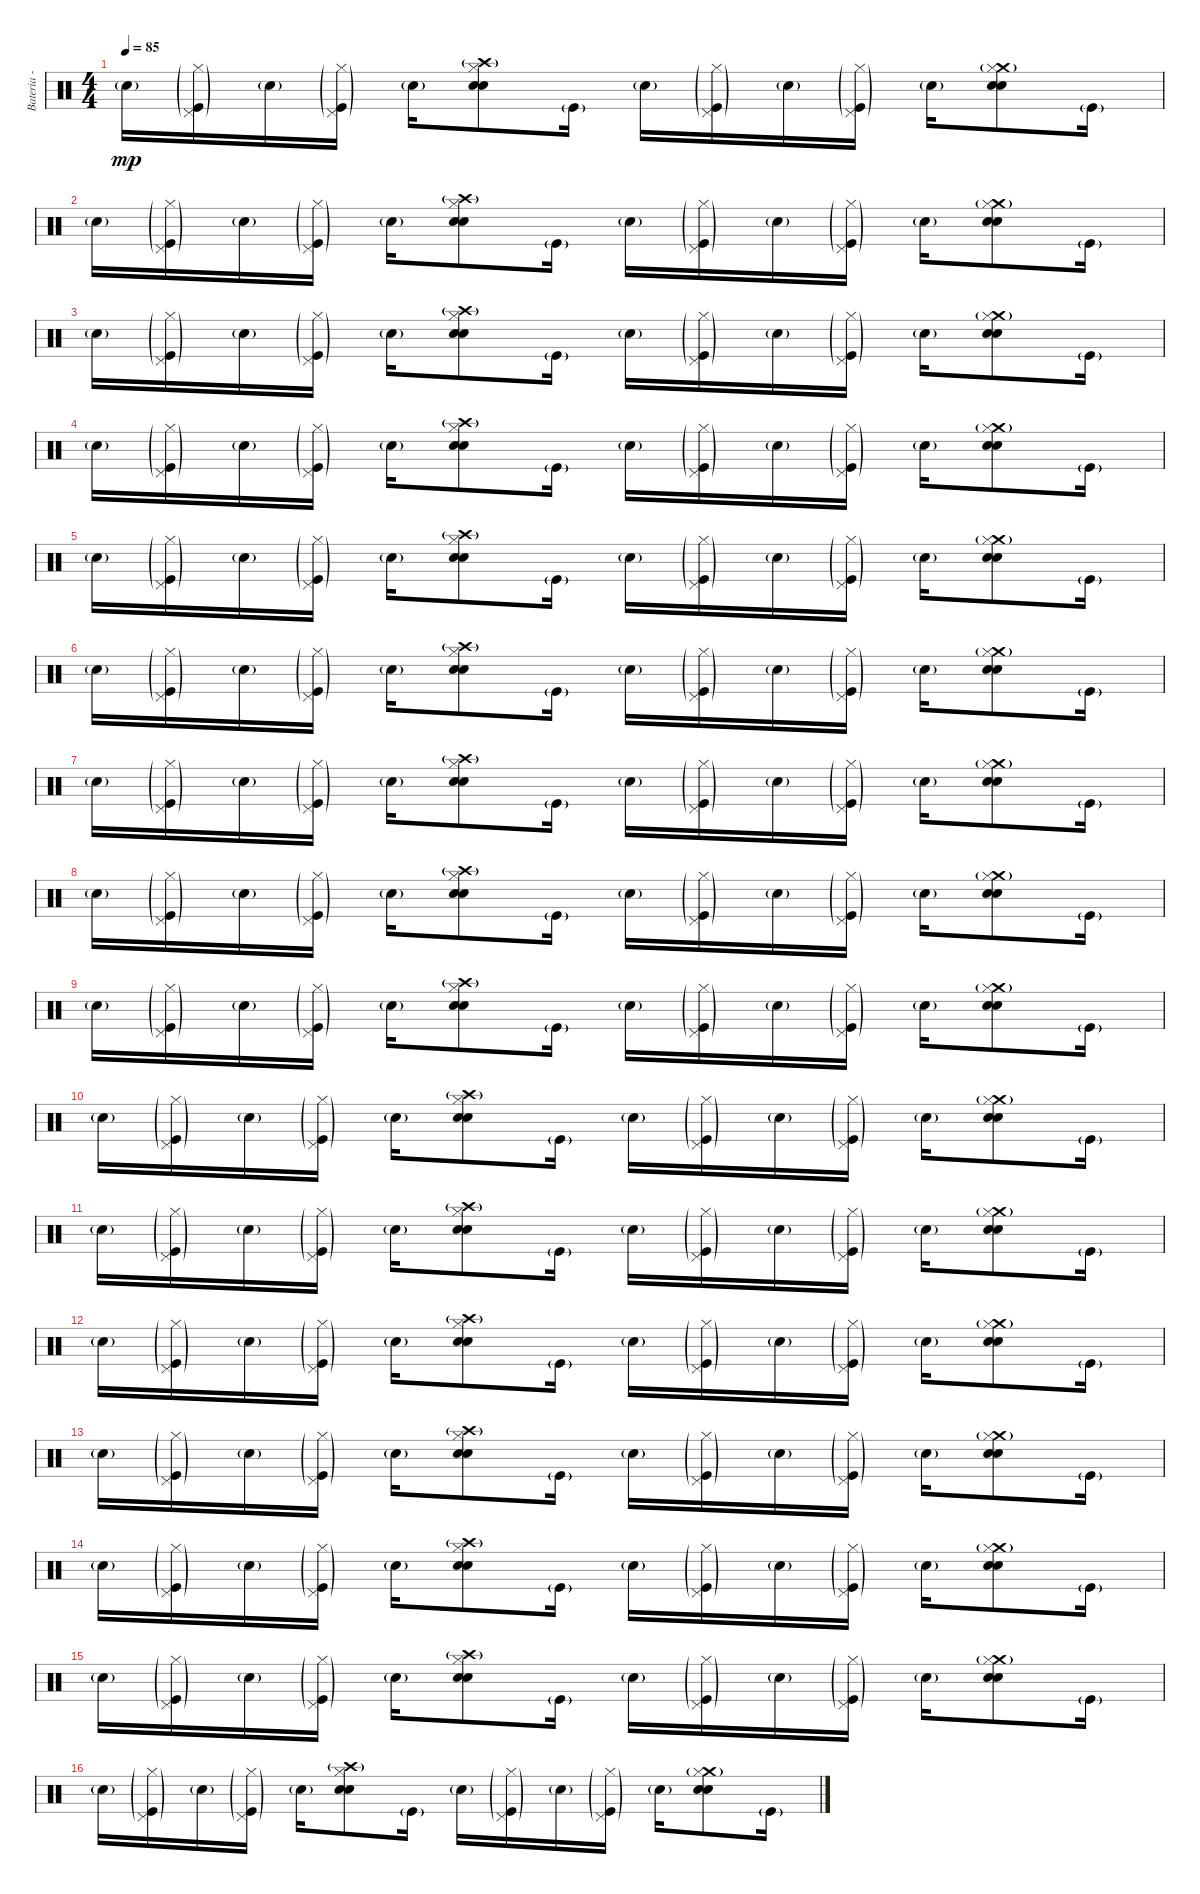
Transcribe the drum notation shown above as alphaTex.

\track ("Bateria - GONÇALO" "Bateria - ") {instrument percussion}
\staff {score}
\articulation defaults
\ts (4 4)
\tempo 85
\clef neutral
\ks c "Electric Snare (hit)"{g}.16{dy mp}
("Hi-Hat (closed)"{g} "Pedal Hi-Hat (hit)"{g} "Kick (hit)"{g}).16 "Snare (hit) 2"{g}.16 ("Hi-Hat (closed)"{g} "Pedal Hi-Hat (hit)"{g} "Kick (hit)"{g}).16 "Electric Snare (hit)"{g}.16 ("Crash high (hit)"{g} "Snare (hit) 2" "Electric Snare (hit)" "Hi-Hat (closed)").8 "Kick (hit)"{g}.16 "Electric Snare (hit)"{g}.16 ("Hi-Hat (closed)"{g} "Pedal Hi-Hat (hit)"{g} "Kick (hit)"{g}).16 "Snare (hit) 2"{g}.16 ("Hi-Hat (closed)"{g} "Pedal Hi-Hat (hit)"{g} "Kick (hit)"{g}).16 "Electric Snare (hit)"{g}.16 ("Crash medium (hit)"{g} "Snare (hit) 2" "Electric Snare (hit)" "Hi-Hat (closed)").8 "Kick (hit)"{g}.16 |
"Electric Snare (hit)"{g}.16 ("Hi-Hat (closed)"{g} "Pedal Hi-Hat (hit)"{g} "Kick (hit)"{g}).16 "Snare (hit) 2"{g}.16 ("Hi-Hat (closed)"{g} "Pedal Hi-Hat (hit)"{g} "Kick (hit)"{g}).16 "Electric Snare (hit)"{g}.16 ("Crash high (hit)"{g} "Snare (hit) 2" "Electric Snare (hit)" "Hi-Hat (closed)").8 "Kick (hit)"{g}.16 "Electric Snare (hit)"{g}.16 ("Hi-Hat (closed)"{g} "Pedal Hi-Hat (hit)"{g} "Kick (hit)"{g}).16 "Snare (hit) 2"{g}.16 ("Hi-Hat (closed)"{g} "Pedal Hi-Hat (hit)"{g} "Kick (hit)"{g}).16 "Electric Snare (hit)"{g}.16 ("Crash medium (hit)"{g} "Snare (hit) 2" "Electric Snare (hit)" "Hi-Hat (closed)").8 "Kick (hit)"{g}.16 |
"Electric Snare (hit)"{g}.16 ("Hi-Hat (closed)"{g} "Pedal Hi-Hat (hit)"{g} "Kick (hit)"{g}).16 "Snare (hit) 2"{g}.16 ("Hi-Hat (closed)"{g} "Pedal Hi-Hat (hit)"{g} "Kick (hit)"{g}).16 "Electric Snare (hit)"{g}.16 ("Crash high (hit)"{g} "Snare (hit) 2" "Electric Snare (hit)" "Hi-Hat (closed)").8 "Kick (hit)"{g}.16 "Electric Snare (hit)"{g}.16 ("Hi-Hat (closed)"{g} "Pedal Hi-Hat (hit)"{g} "Kick (hit)"{g}).16 "Snare (hit) 2"{g}.16 ("Hi-Hat (closed)"{g} "Pedal Hi-Hat (hit)"{g} "Kick (hit)"{g}).16 "Electric Snare (hit)"{g}.16 ("Crash medium (hit)"{g} "Snare (hit) 2" "Electric Snare (hit)" "Hi-Hat (closed)").8 "Kick (hit)"{g}.16 |
"Electric Snare (hit)"{g}.16 ("Hi-Hat (closed)"{g} "Pedal Hi-Hat (hit)"{g} "Kick (hit)"{g}).16 "Snare (hit) 2"{g}.16 ("Hi-Hat (closed)"{g} "Pedal Hi-Hat (hit)"{g} "Kick (hit)"{g}).16 "Electric Snare (hit)"{g}.16 ("Crash high (hit)"{g} "Snare (hit) 2" "Electric Snare (hit)" "Hi-Hat (closed)").8 "Kick (hit)"{g}.16 "Electric Snare (hit)"{g}.16 ("Hi-Hat (closed)"{g} "Pedal Hi-Hat (hit)"{g} "Kick (hit)"{g}).16 "Snare (hit) 2"{g}.16 ("Hi-Hat (closed)"{g} "Pedal Hi-Hat (hit)"{g} "Kick (hit)"{g}).16 "Electric Snare (hit)"{g}.16 ("Crash medium (hit)"{g} "Snare (hit) 2" "Electric Snare (hit)" "Hi-Hat (closed)").8 "Kick (hit)"{g}.16 |
"Electric Snare (hit)"{g}.16 ("Hi-Hat (closed)"{g} "Pedal Hi-Hat (hit)"{g} "Kick (hit)"{g}).16 "Snare (hit) 2"{g}.16 ("Hi-Hat (closed)"{g} "Pedal Hi-Hat (hit)"{g} "Kick (hit)"{g}).16 "Electric Snare (hit)"{g}.16 ("Crash high (hit)"{g} "Snare (hit) 2" "Electric Snare (hit)" "Hi-Hat (closed)").8 "Kick (hit)"{g}.16 "Electric Snare (hit)"{g}.16 ("Hi-Hat (closed)"{g} "Pedal Hi-Hat (hit)"{g} "Kick (hit)"{g}).16 "Snare (hit) 2"{g}.16 ("Hi-Hat (closed)"{g} "Pedal Hi-Hat (hit)"{g} "Kick (hit)"{g}).16 "Electric Snare (hit)"{g}.16 ("Crash medium (hit)"{g} "Snare (hit) 2" "Electric Snare (hit)" "Hi-Hat (closed)").8 "Kick (hit)"{g}.16 |
"Electric Snare (hit)"{g}.16 ("Hi-Hat (closed)"{g} "Pedal Hi-Hat (hit)"{g} "Kick (hit)"{g}).16 "Snare (hit) 2"{g}.16 ("Hi-Hat (closed)"{g} "Pedal Hi-Hat (hit)"{g} "Kick (hit)"{g}).16 "Electric Snare (hit)"{g}.16 ("Crash high (hit)"{g} "Snare (hit) 2" "Electric Snare (hit)" "Hi-Hat (closed)").8 "Kick (hit)"{g}.16 "Electric Snare (hit)"{g}.16 ("Hi-Hat (closed)"{g} "Pedal Hi-Hat (hit)"{g} "Kick (hit)"{g}).16 "Snare (hit) 2"{g}.16 ("Hi-Hat (closed)"{g} "Pedal Hi-Hat (hit)"{g} "Kick (hit)"{g}).16 "Electric Snare (hit)"{g}.16 ("Crash medium (hit)"{g} "Snare (hit) 2" "Electric Snare (hit)" "Hi-Hat (closed)").8 "Kick (hit)"{g}.16 |
"Electric Snare (hit)"{g}.16 ("Hi-Hat (closed)"{g} "Pedal Hi-Hat (hit)"{g} "Kick (hit)"{g}).16 "Snare (hit) 2"{g}.16 ("Hi-Hat (closed)"{g} "Pedal Hi-Hat (hit)"{g} "Kick (hit)"{g}).16 "Electric Snare (hit)"{g}.16 ("Crash high (hit)"{g} "Snare (hit) 2" "Electric Snare (hit)" "Hi-Hat (closed)").8 "Kick (hit)"{g}.16 "Electric Snare (hit)"{g}.16 ("Hi-Hat (closed)"{g} "Pedal Hi-Hat (hit)"{g} "Kick (hit)"{g}).16 "Snare (hit) 2"{g}.16 ("Hi-Hat (closed)"{g} "Pedal Hi-Hat (hit)"{g} "Kick (hit)"{g}).16 "Electric Snare (hit)"{g}.16 ("Crash medium (hit)"{g} "Snare (hit) 2" "Electric Snare (hit)" "Hi-Hat (closed)").8 "Kick (hit)"{g}.16 |
"Electric Snare (hit)"{g}.16 ("Hi-Hat (closed)"{g} "Pedal Hi-Hat (hit)"{g} "Kick (hit)"{g}).16 "Snare (hit) 2"{g}.16 ("Hi-Hat (closed)"{g} "Pedal Hi-Hat (hit)"{g} "Kick (hit)"{g}).16 "Electric Snare (hit)"{g}.16 ("Crash high (hit)"{g} "Snare (hit) 2" "Electric Snare (hit)" "Hi-Hat (closed)").8 "Kick (hit)"{g}.16 "Electric Snare (hit)"{g}.16 ("Hi-Hat (closed)"{g} "Pedal Hi-Hat (hit)"{g} "Kick (hit)"{g}).16 "Snare (hit) 2"{g}.16 ("Hi-Hat (closed)"{g} "Pedal Hi-Hat (hit)"{g} "Kick (hit)"{g}).16 "Electric Snare (hit)"{g}.16 ("Crash medium (hit)"{g} "Snare (hit) 2" "Electric Snare (hit)" "Hi-Hat (closed)").8 "Kick (hit)"{g}.16 |
"Electric Snare (hit)"{g}.16 ("Hi-Hat (closed)"{g} "Pedal Hi-Hat (hit)"{g} "Kick (hit)"{g}).16 "Snare (hit) 2"{g}.16 ("Hi-Hat (closed)"{g} "Pedal Hi-Hat (hit)"{g} "Kick (hit)"{g}).16 "Electric Snare (hit)"{g}.16 ("Crash high (hit)"{g} "Snare (hit) 2" "Electric Snare (hit)" "Hi-Hat (closed)").8 "Kick (hit)"{g}.16 "Electric Snare (hit)"{g}.16 ("Hi-Hat (closed)"{g} "Pedal Hi-Hat (hit)"{g} "Kick (hit)"{g}).16 "Snare (hit) 2"{g}.16 ("Hi-Hat (closed)"{g} "Pedal Hi-Hat (hit)"{g} "Kick (hit)"{g}).16 "Electric Snare (hit)"{g}.16 ("Crash medium (hit)"{g} "Snare (hit) 2" "Electric Snare (hit)" "Hi-Hat (closed)").8 "Kick (hit)"{g}.16 |
"Electric Snare (hit)"{g}.16 ("Hi-Hat (closed)"{g} "Pedal Hi-Hat (hit)"{g} "Kick (hit)"{g}).16 "Snare (hit) 2"{g}.16 ("Hi-Hat (closed)"{g} "Pedal Hi-Hat (hit)"{g} "Kick (hit)"{g}).16 "Electric Snare (hit)"{g}.16 ("Crash high (hit)"{g} "Snare (hit) 2" "Electric Snare (hit)" "Hi-Hat (closed)").8 "Kick (hit)"{g}.16 "Electric Snare (hit)"{g}.16 ("Hi-Hat (closed)"{g} "Pedal Hi-Hat (hit)"{g} "Kick (hit)"{g}).16 "Snare (hit) 2"{g}.16 ("Hi-Hat (closed)"{g} "Pedal Hi-Hat (hit)"{g} "Kick (hit)"{g}).16 "Electric Snare (hit)"{g}.16 ("Crash medium (hit)"{g} "Snare (hit) 2" "Electric Snare (hit)" "Hi-Hat (closed)").8 "Kick (hit)"{g}.16 |
"Electric Snare (hit)"{g}.16 ("Hi-Hat (closed)"{g} "Pedal Hi-Hat (hit)"{g} "Kick (hit)"{g}).16 "Snare (hit) 2"{g}.16 ("Hi-Hat (closed)"{g} "Pedal Hi-Hat (hit)"{g} "Kick (hit)"{g}).16 "Electric Snare (hit)"{g}.16 ("Crash high (hit)"{g} "Snare (hit) 2" "Electric Snare (hit)" "Hi-Hat (closed)").8 "Kick (hit)"{g}.16 "Electric Snare (hit)"{g}.16 ("Hi-Hat (closed)"{g} "Pedal Hi-Hat (hit)"{g} "Kick (hit)"{g}).16 "Snare (hit) 2"{g}.16 ("Hi-Hat (closed)"{g} "Pedal Hi-Hat (hit)"{g} "Kick (hit)"{g}).16 "Electric Snare (hit)"{g}.16 ("Crash medium (hit)"{g} "Snare (hit) 2" "Electric Snare (hit)" "Hi-Hat (closed)").8 "Kick (hit)"{g}.16 |
"Electric Snare (hit)"{g}.16 ("Hi-Hat (closed)"{g} "Pedal Hi-Hat (hit)"{g} "Kick (hit)"{g}).16 "Snare (hit) 2"{g}.16 ("Hi-Hat (closed)"{g} "Pedal Hi-Hat (hit)"{g} "Kick (hit)"{g}).16 "Electric Snare (hit)"{g}.16 ("Crash high (hit)"{g} "Snare (hit) 2" "Electric Snare (hit)" "Hi-Hat (closed)").8 "Kick (hit)"{g}.16 "Electric Snare (hit)"{g}.16 ("Hi-Hat (closed)"{g} "Pedal Hi-Hat (hit)"{g} "Kick (hit)"{g}).16 "Snare (hit) 2"{g}.16 ("Hi-Hat (closed)"{g} "Pedal Hi-Hat (hit)"{g} "Kick (hit)"{g}).16 "Electric Snare (hit)"{g}.16 ("Crash medium (hit)"{g} "Snare (hit) 2" "Electric Snare (hit)" "Hi-Hat (closed)").8 "Kick (hit)"{g}.16 |
"Electric Snare (hit)"{g}.16 ("Hi-Hat (closed)"{g} "Pedal Hi-Hat (hit)"{g} "Kick (hit)"{g}).16 "Snare (hit) 2"{g}.16 ("Hi-Hat (closed)"{g} "Pedal Hi-Hat (hit)"{g} "Kick (hit)"{g}).16 "Electric Snare (hit)"{g}.16 ("Crash high (hit)"{g} "Snare (hit) 2" "Electric Snare (hit)" "Hi-Hat (closed)").8 "Kick (hit)"{g}.16 "Electric Snare (hit)"{g}.16 ("Hi-Hat (closed)"{g} "Pedal Hi-Hat (hit)"{g} "Kick (hit)"{g}).16 "Snare (hit) 2"{g}.16 ("Hi-Hat (closed)"{g} "Pedal Hi-Hat (hit)"{g} "Kick (hit)"{g}).16 "Electric Snare (hit)"{g}.16 ("Crash medium (hit)"{g} "Snare (hit) 2" "Electric Snare (hit)" "Hi-Hat (closed)").8 "Kick (hit)"{g}.16 |
"Electric Snare (hit)"{g}.16 ("Hi-Hat (closed)"{g} "Pedal Hi-Hat (hit)"{g} "Kick (hit)"{g}).16 "Snare (hit) 2"{g}.16 ("Hi-Hat (closed)"{g} "Pedal Hi-Hat (hit)"{g} "Kick (hit)"{g}).16 "Electric Snare (hit)"{g}.16 ("Crash high (hit)"{g} "Snare (hit) 2" "Electric Snare (hit)" "Hi-Hat (closed)").8 "Kick (hit)"{g}.16 "Electric Snare (hit)"{g}.16 ("Hi-Hat (closed)"{g} "Pedal Hi-Hat (hit)"{g} "Kick (hit)"{g}).16 "Snare (hit) 2"{g}.16 ("Hi-Hat (closed)"{g} "Pedal Hi-Hat (hit)"{g} "Kick (hit)"{g}).16 "Electric Snare (hit)"{g}.16 ("Crash medium (hit)"{g} "Snare (hit) 2" "Electric Snare (hit)" "Hi-Hat (closed)").8 "Kick (hit)"{g}.16 |
"Electric Snare (hit)"{g}.16 ("Hi-Hat (closed)"{g} "Pedal Hi-Hat (hit)"{g} "Kick (hit)"{g}).16 "Snare (hit) 2"{g}.16 ("Hi-Hat (closed)"{g} "Pedal Hi-Hat (hit)"{g} "Kick (hit)"{g}).16 "Electric Snare (hit)"{g}.16 ("Crash high (hit)"{g} "Snare (hit) 2" "Electric Snare (hit)" "Hi-Hat (closed)").8 "Kick (hit)"{g}.16 "Electric Snare (hit)"{g}.16 ("Hi-Hat (closed)"{g} "Pedal Hi-Hat (hit)"{g} "Kick (hit)"{g}).16 "Snare (hit) 2"{g}.16 ("Hi-Hat (closed)"{g} "Pedal Hi-Hat (hit)"{g} "Kick (hit)"{g}).16 "Electric Snare (hit)"{g}.16 ("Crash medium (hit)"{g} "Snare (hit) 2" "Electric Snare (hit)" "Hi-Hat (closed)").8 "Kick (hit)"{g}.16 |
"Electric Snare (hit)"{g}.16 ("Hi-Hat (closed)"{g} "Pedal Hi-Hat (hit)"{g} "Kick (hit)"{g}).16 "Snare (hit) 2"{g}.16 ("Hi-Hat (closed)"{g} "Pedal Hi-Hat (hit)"{g} "Kick (hit)"{g}).16 "Electric Snare (hit)"{g}.16 ("Crash high (hit)"{g} "Snare (hit) 2" "Electric Snare (hit)" "Hi-Hat (closed)").8 "Kick (hit)"{g}.16 "Electric Snare (hit)"{g}.16 ("Hi-Hat (closed)"{g} "Pedal Hi-Hat (hit)"{g} "Kick (hit)"{g}).16 "Snare (hit) 2"{g}.16 ("Hi-Hat (closed)"{g} "Pedal Hi-Hat (hit)"{g} "Kick (hit)"{g}).16 "Electric Snare (hit)"{g}.16 ("Crash medium (hit)"{g} "Snare (hit) 2" "Electric Snare (hit)" "Hi-Hat (closed)").8 "Kick (hit)"{g}.16
